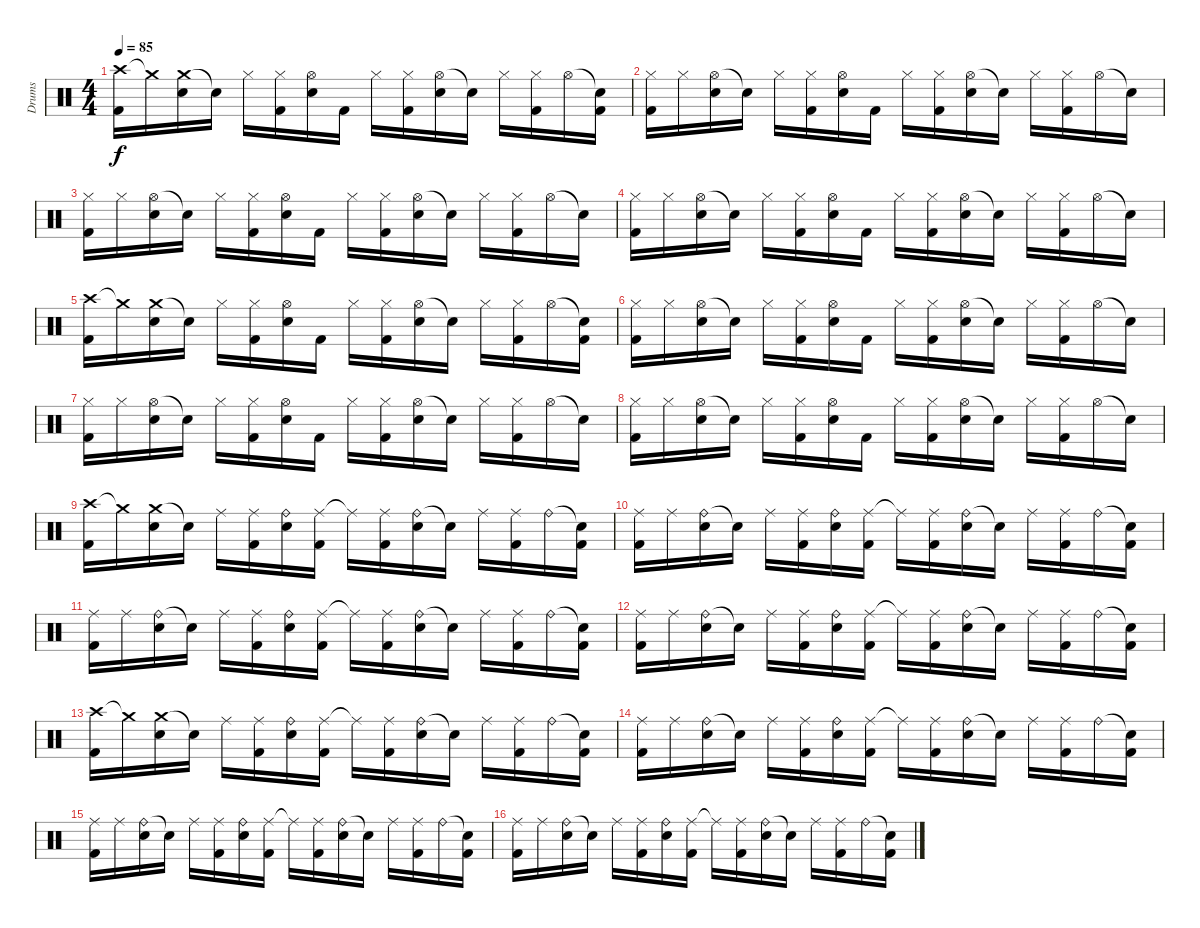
\track ("Drums" "Drums") {instrument percussion}
\staff {score}
\articulation defaults
\ts (4 4)
\tempo 85
\clef neutral
\ks c
("Crash high (hit)" "Kick (hit) 2").16{dy f} "Crash medium (hit)"{t}.16 ("Crash medium (hit)" "Snare (hit) 2").16 "Snare (hit)"{t}.16 "Hi-Hat (closed)".16 ("Hi-Hat (closed)" "Kick (hit) 2").16 ("Hi-Hat (open)" "Snare (hit) 2").16 "Kick (hit) 2".16 "Hi-Hat (closed)".16 ("Hi-Hat (closed)" "Kick (hit) 2").16 ("Hi-Hat (open)" "Snare (hit) 2").16 "Snare (hit)"{t}.16 "Hi-Hat (closed)".16 ("Hi-Hat (closed)" "Kick (hit) 2").16 "Hi-Hat (open)".16 ("Snare (hit)"{t} "Kick (hit) 2").16 |
("Hi-Hat (closed)" "Kick (hit) 2").16 "Hi-Hat (closed)".16 ("Hi-Hat (open)" "Snare (hit) 2").16 "Snare (hit)"{t}.16 "Hi-Hat (closed)".16 ("Hi-Hat (closed)" "Kick (hit) 2").16 ("Hi-Hat (open)" "Snare (hit) 2").16 "Kick (hit) 2".16 "Hi-Hat (closed)".16 ("Hi-Hat (closed)" "Kick (hit) 2").16 ("Hi-Hat (open)" "Snare (hit) 2").16 "Snare (hit)"{t}.16 "Hi-Hat (closed)".16 ("Hi-Hat (closed)" "Kick (hit) 2").16 "Hi-Hat (open)".16 "Snare (hit)"{t}.16 |
("Hi-Hat (closed)" "Kick (hit) 2").16 "Hi-Hat (closed)".16 ("Hi-Hat (open)" "Snare (hit) 2").16 "Snare (hit)"{t}.16 "Hi-Hat (closed)".16 ("Hi-Hat (closed)" "Kick (hit) 2").16 ("Hi-Hat (open)" "Snare (hit) 2").16 "Kick (hit) 2".16 "Hi-Hat (closed)".16 ("Hi-Hat (closed)" "Kick (hit) 2").16 ("Hi-Hat (open)" "Snare (hit) 2").16 "Snare (hit)"{t}.16 "Hi-Hat (closed)".16 ("Hi-Hat (closed)" "Kick (hit) 2").16 "Hi-Hat (open)".16 "Snare (hit)"{t}.16 |
("Hi-Hat (closed)" "Kick (hit) 2").16 "Hi-Hat (closed)".16 ("Hi-Hat (open)" "Snare (hit) 2").16 "Snare (hit)"{t}.16 "Hi-Hat (closed)".16 ("Hi-Hat (closed)" "Kick (hit) 2").16 ("Hi-Hat (open)" "Snare (hit) 2").16 "Kick (hit) 2".16 "Hi-Hat (closed)".16 ("Hi-Hat (closed)" "Kick (hit) 2").16 ("Hi-Hat (open)" "Snare (hit) 2").16 "Snare (hit)"{t}.16 "Hi-Hat (closed)".16 ("Hi-Hat (closed)" "Kick (hit) 2").16 "Hi-Hat (open)".16 "Snare (hit)"{t}.16 |
("Crash high (hit)" "Kick (hit) 2").16 "Crash medium (hit)"{t}.16 ("Crash medium (hit)" "Snare (hit) 2").16 "Snare (hit)"{t}.16 "Hi-Hat (closed)".16 ("Hi-Hat (closed)" "Kick (hit) 2").16 ("Hi-Hat (open)" "Snare (hit) 2").16 "Kick (hit) 2".16 "Hi-Hat (closed)".16 ("Hi-Hat (closed)" "Kick (hit) 2").16 ("Hi-Hat (open)" "Snare (hit) 2").16 "Snare (hit)"{t}.16 "Hi-Hat (closed)".16 ("Hi-Hat (closed)" "Kick (hit) 2").16 "Hi-Hat (open)".16 ("Snare (hit)"{t} "Kick (hit) 2").16 |
("Hi-Hat (closed)" "Kick (hit) 2").16 "Hi-Hat (closed)".16 ("Hi-Hat (open)" "Snare (hit) 2").16 "Snare (hit)"{t}.16 "Hi-Hat (closed)".16 ("Hi-Hat (closed)" "Kick (hit) 2").16 ("Hi-Hat (open)" "Snare (hit) 2").16 "Kick (hit) 2".16 "Hi-Hat (closed)".16 ("Hi-Hat (closed)" "Kick (hit) 2").16 ("Hi-Hat (open)" "Snare (hit) 2").16 "Snare (hit)"{t}.16 "Hi-Hat (closed)".16 ("Hi-Hat (closed)" "Kick (hit) 2").16 "Hi-Hat (open)".16 "Snare (hit)"{t}.16 |
("Hi-Hat (closed)" "Kick (hit) 2").16 "Hi-Hat (closed)".16 ("Hi-Hat (open)" "Snare (hit) 2").16 "Snare (hit)"{t}.16 "Hi-Hat (closed)".16 ("Hi-Hat (closed)" "Kick (hit) 2").16 ("Hi-Hat (open)" "Snare (hit) 2").16 "Kick (hit) 2".16 "Hi-Hat (closed)".16 ("Hi-Hat (closed)" "Kick (hit) 2").16 ("Hi-Hat (open)" "Snare (hit) 2").16 "Snare (hit)"{t}.16 "Hi-Hat (closed)".16 ("Hi-Hat (closed)" "Kick (hit) 2").16 "Hi-Hat (open)".16 "Snare (hit)"{t}.16 |
("Hi-Hat (closed)" "Kick (hit) 2").16 "Hi-Hat (closed)".16 ("Hi-Hat (open)" "Snare (hit) 2").16 "Snare (hit)"{t}.16 "Hi-Hat (closed)".16 ("Hi-Hat (closed)" "Kick (hit) 2").16 ("Hi-Hat (open)" "Snare (hit) 2").16 "Kick (hit) 2".16 "Hi-Hat (closed)".16 ("Hi-Hat (closed)" "Kick (hit) 2").16 ("Hi-Hat (open)" "Snare (hit) 2").16 "Snare (hit)"{t}.16 "Hi-Hat (closed)".16 ("Hi-Hat (closed)" "Kick (hit) 2").16 "Hi-Hat (open)".16 "Snare (hit)"{t}.16 |
("Crash high (hit)" "Kick (hit) 2").16{volume 8} "Crash medium (hit)"{t}.16 ("Crash medium (hit)" "Snare (hit) 2").16 "Snare (hit)"{t}.16 "Ride (middle)".16 ("Ride (middle)" "Kick (hit) 2").16 ("Ride (bell)" "Snare (hit) 2").16 ("Ride (middle)" "Kick (hit) 2").16 "Ride (middle)"{t}.16 ("Ride (middle)" "Kick (hit) 2").16 ("Ride (bell)" "Snare (hit) 2").16 "Snare (hit)"{t}.16 "Ride (middle)".16 ("Ride (middle)" "Kick (hit) 2").16 "Ride (bell)".16 ("Snare (hit)"{t} "Kick (hit) 2").16 |
("Ride (middle)" "Kick (hit) 2").16 "Ride (middle)".16 ("Ride (bell)" "Snare (hit) 2").16 "Snare (hit)"{t}.16 "Ride (middle)".16 ("Ride (middle)" "Kick (hit) 2").16 ("Ride (bell)" "Snare (hit) 2").16 ("Ride (middle)" "Kick (hit) 2").16 "Ride (middle)"{t}.16 ("Ride (middle)" "Kick (hit) 2").16 ("Ride (bell)" "Snare (hit) 2").16 "Snare (hit)"{t}.16 "Ride (middle)".16 ("Ride (middle)" "Kick (hit) 2").16 "Ride (bell)".16 ("Snare (hit)"{t} "Kick (hit) 2").16 |
("Ride (middle)" "Kick (hit) 2").16 "Ride (middle)".16 ("Ride (bell)" "Snare (hit) 2").16 "Snare (hit)"{t}.16 "Ride (middle)".16 ("Ride (middle)" "Kick (hit) 2").16 ("Ride (bell)" "Snare (hit) 2").16 ("Ride (middle)" "Kick (hit) 2").16 "Ride (middle)"{t}.16 ("Ride (middle)" "Kick (hit) 2").16 ("Ride (bell)" "Snare (hit) 2").16 "Snare (hit)"{t}.16 "Ride (middle)".16 ("Ride (middle)" "Kick (hit) 2").16 "Ride (bell)".16 ("Snare (hit)"{t} "Kick (hit) 2").16 |
("Ride (middle)" "Kick (hit) 2").16 "Ride (middle)".16 ("Ride (bell)" "Snare (hit) 2").16 "Snare (hit)"{t}.16 "Ride (middle)".16 ("Ride (middle)" "Kick (hit) 2").16 ("Ride (bell)" "Snare (hit) 2").16 ("Ride (middle)" "Kick (hit) 2").16 "Ride (middle)"{t}.16 ("Ride (middle)" "Kick (hit) 2").16 ("Ride (bell)" "Snare (hit) 2").16 "Snare (hit)"{t}.16 "Ride (middle)".16 ("Ride (middle)" "Kick (hit) 2").16 "Ride (bell)".16 ("Snare (hit)"{t} "Kick (hit) 2").16 |
("Crash high (hit)" "Kick (hit) 2").16{volume 0} "Crash medium (hit)"{t}.16 ("Crash medium (hit)" "Snare (hit) 2").16 "Snare (hit)"{t}.16 "Ride (middle)".16 ("Ride (middle)" "Kick (hit) 2").16 ("Ride (bell)" "Snare (hit) 2").16 ("Ride (middle)" "Kick (hit) 2").16 "Ride (middle)"{t}.16 ("Ride (middle)" "Kick (hit) 2").16 ("Ride (bell)" "Snare (hit) 2").16 "Snare (hit)"{t}.16 "Ride (middle)".16 ("Ride (middle)" "Kick (hit) 2").16 "Ride (bell)".16 ("Snare (hit)"{t} "Kick (hit) 2").16 |
("Ride (middle)" "Kick (hit) 2").16 "Ride (middle)".16 ("Ride (bell)" "Snare (hit) 2").16 "Snare (hit)"{t}.16 "Ride (middle)".16 ("Ride (middle)" "Kick (hit) 2").16 ("Ride (bell)" "Snare (hit) 2").16 ("Ride (middle)" "Kick (hit) 2").16 "Ride (middle)"{t}.16 ("Ride (middle)" "Kick (hit) 2").16 ("Ride (bell)" "Snare (hit) 2").16 "Snare (hit)"{t}.16 "Ride (middle)".16 ("Ride (middle)" "Kick (hit) 2").16 "Ride (bell)".16 ("Snare (hit)"{t} "Kick (hit) 2").16 |
("Ride (middle)" "Kick (hit) 2").16 "Ride (middle)".16 ("Ride (bell)" "Snare (hit) 2").16 "Snare (hit)"{t}.16 "Ride (middle)".16 ("Ride (middle)" "Kick (hit) 2").16 ("Ride (bell)" "Snare (hit) 2").16 ("Ride (middle)" "Kick (hit) 2").16 "Ride (middle)"{t}.16 ("Ride (middle)" "Kick (hit) 2").16 ("Ride (bell)" "Snare (hit) 2").16 "Snare (hit)"{t}.16 "Ride (middle)".16 ("Ride (middle)" "Kick (hit) 2").16 "Ride (bell)".16 ("Snare (hit)"{t} "Kick (hit) 2").16 |
("Ride (middle)" "Kick (hit) 2").16 "Ride (middle)".16 ("Ride (bell)" "Snare (hit) 2").16 "Snare (hit)"{t}.16 "Ride (middle)".16 ("Ride (middle)" "Kick (hit) 2").16 ("Ride (bell)" "Snare (hit) 2").16 ("Ride (middle)" "Kick (hit) 2").16 "Ride (middle)"{t}.16 ("Ride (middle)" "Kick (hit) 2").16 ("Ride (bell)" "Snare (hit) 2").16 "Snare (hit)"{t}.16 "Ride (middle)".16 ("Ride (middle)" "Kick (hit) 2").16 "Ride (bell)".16 ("Snare (hit)"{t} "Kick (hit) 2").16
